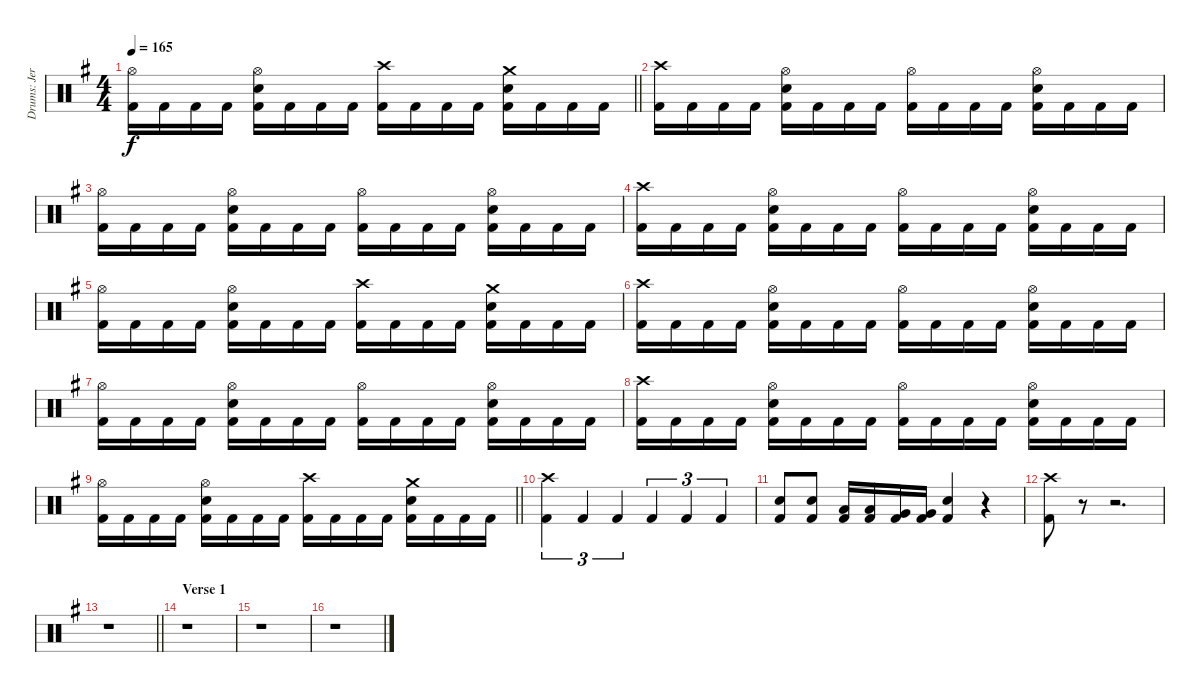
\track ("Drums: Jere Luokkamäki" "Drums: Jer") {instrument percussion}
\staff {score}
\articulation defaults
\ts (4 4)
\tempo 165
\clef neutral
\barLineRight lightlight
\ks eminor
("Hi-Hat (open)" "Kick (hit) 2").16{dy f} "Kick (hit) 2".16 "Kick (hit) 2".16 "Kick (hit) 2".16 ("Hi-Hat (open)" "Electric Snare (hit)" "Kick (hit) 2").16 "Kick (hit) 2".16 "Kick (hit) 2".16 "Kick (hit) 2".16 ("Crash high (hit)" "Kick (hit) 2").16 "Kick (hit) 2".16 "Kick (hit) 2".16 "Kick (hit) 2".16 ("Crash medium (hit)" "Electric Snare (hit)" "Kick (hit) 2").16 "Kick (hit) 2".16 "Kick (hit) 2".16 "Kick (hit) 2".16 |
("Crash high (hit)" "Kick (hit) 2").16 "Kick (hit) 2".16 "Kick (hit) 2".16 "Kick (hit) 2".16 ("Hi-Hat (open)" "Electric Snare (hit)" "Kick (hit) 2").16 "Kick (hit) 2".16 "Kick (hit) 2".16 "Kick (hit) 2".16 ("Hi-Hat (open)" "Kick (hit) 2").16 "Kick (hit) 2".16 "Kick (hit) 2".16 "Kick (hit) 2".16 ("Hi-Hat (open)" "Electric Snare (hit)" "Kick (hit) 2").16 "Kick (hit) 2".16 "Kick (hit) 2".16 "Kick (hit) 2".16 |
("Hi-Hat (open)" "Kick (hit) 2").16 "Kick (hit) 2".16 "Kick (hit) 2".16 "Kick (hit) 2".16 ("Hi-Hat (open)" "Electric Snare (hit)" "Kick (hit) 2").16 "Kick (hit) 2".16 "Kick (hit) 2".16 "Kick (hit) 2".16 ("Hi-Hat (open)" "Kick (hit) 2").16 "Kick (hit) 2".16 "Kick (hit) 2".16 "Kick (hit) 2".16 ("Hi-Hat (open)" "Electric Snare (hit)" "Kick (hit) 2").16 "Kick (hit) 2".16 "Kick (hit) 2".16 "Kick (hit) 2".16 |
("Crash high (hit)" "Kick (hit) 2").16 "Kick (hit) 2".16 "Kick (hit) 2".16 "Kick (hit) 2".16 ("Hi-Hat (open)" "Electric Snare (hit)" "Kick (hit) 2").16 "Kick (hit) 2".16 "Kick (hit) 2".16 "Kick (hit) 2".16 ("Hi-Hat (open)" "Kick (hit) 2").16 "Kick (hit) 2".16 "Kick (hit) 2".16 "Kick (hit) 2".16 ("Hi-Hat (open)" "Electric Snare (hit)" "Kick (hit) 2").16 "Kick (hit) 2".16 "Kick (hit) 2".16 "Kick (hit) 2".16 |
("Hi-Hat (open)" "Kick (hit) 2").16 "Kick (hit) 2".16 "Kick (hit) 2".16 "Kick (hit) 2".16 ("Hi-Hat (open)" "Electric Snare (hit)" "Kick (hit) 2").16 "Kick (hit) 2".16 "Kick (hit) 2".16 "Kick (hit) 2".16 ("Crash high (hit)" "Kick (hit) 2").16 "Kick (hit) 2".16 "Kick (hit) 2".16 "Kick (hit) 2".16 ("Crash medium (hit)" "Electric Snare (hit)" "Kick (hit) 2").16 "Kick (hit) 2".16 "Kick (hit) 2".16 "Kick (hit) 2".16 |
("Crash high (hit)" "Kick (hit) 2").16 "Kick (hit) 2".16 "Kick (hit) 2".16 "Kick (hit) 2".16 ("Hi-Hat (open)" "Electric Snare (hit)" "Kick (hit) 2").16 "Kick (hit) 2".16 "Kick (hit) 2".16 "Kick (hit) 2".16 ("Hi-Hat (open)" "Kick (hit) 2").16 "Kick (hit) 2".16 "Kick (hit) 2".16 "Kick (hit) 2".16 ("Hi-Hat (open)" "Electric Snare (hit)" "Kick (hit) 2").16 "Kick (hit) 2".16 "Kick (hit) 2".16 "Kick (hit) 2".16 |
("Hi-Hat (open)" "Kick (hit) 2").16 "Kick (hit) 2".16 "Kick (hit) 2".16 "Kick (hit) 2".16 ("Hi-Hat (open)" "Electric Snare (hit)" "Kick (hit) 2").16 "Kick (hit) 2".16 "Kick (hit) 2".16 "Kick (hit) 2".16 ("Hi-Hat (open)" "Kick (hit) 2").16 "Kick (hit) 2".16 "Kick (hit) 2".16 "Kick (hit) 2".16 ("Hi-Hat (open)" "Electric Snare (hit)" "Kick (hit) 2").16 "Kick (hit) 2".16 "Kick (hit) 2".16 "Kick (hit) 2".16 |
("Crash high (hit)" "Kick (hit) 2").16 "Kick (hit) 2".16 "Kick (hit) 2".16 "Kick (hit) 2".16 ("Hi-Hat (open)" "Electric Snare (hit)" "Kick (hit) 2").16 "Kick (hit) 2".16 "Kick (hit) 2".16 "Kick (hit) 2".16 ("Hi-Hat (open)" "Kick (hit) 2").16 "Kick (hit) 2".16 "Kick (hit) 2".16 "Kick (hit) 2".16 ("Hi-Hat (open)" "Electric Snare (hit)" "Kick (hit) 2").16 "Kick (hit) 2".16 "Kick (hit) 2".16 "Kick (hit) 2".16 |
\barLineRight lightlight
("Hi-Hat (open)" "Kick (hit) 2").16 "Kick (hit) 2".16 "Kick (hit) 2".16 "Kick (hit) 2".16 ("Hi-Hat (open)" "Electric Snare (hit)" "Kick (hit) 2").16 "Kick (hit) 2".16 "Kick (hit) 2".16 "Kick (hit) 2".16 ("Crash high (hit)" "Kick (hit) 2").16 "Kick (hit) 2".16 "Kick (hit) 2".16 "Kick (hit) 2".16 ("Crash medium (hit)" "Electric Snare (hit)" "Kick (hit) 2").16 "Kick (hit) 2".16 "Kick (hit) 2".16 "Kick (hit) 2".16 |
("Crash high (hit)" "Kick (hit) 2").4{tu (3 2)} "Kick (hit) 2".4{tu (3 2)} "Kick (hit) 2".4{tu (3 2)} "Kick (hit) 2".4{tu (3 2)} "Kick (hit) 2".4{tu (3 2)} "Kick (hit) 2".4{tu (3 2)} |
("Electric Snare (hit)" "Kick (hit) 2").8 ("Electric Snare (hit)" "Kick (hit) 2").8 ("Low Tom (hit)" "Kick (hit) 2").16 ("Low Tom (hit)" "Kick (hit) 2").16 ("Very Low Tom (hit)" "Kick (hit) 2").16 ("Very Low Tom (hit)" "Kick (hit) 2").16 ("Electric Snare (hit)" "Kick (hit) 2").4 r.4 |
("Crash high (hit)" "Kick (hit) 2").8 r.8 r.2{d} |
\barLineRight lightlight
r.1 |
\section ("" "Verse 1")
r.1 |
r.1 |
r.1
